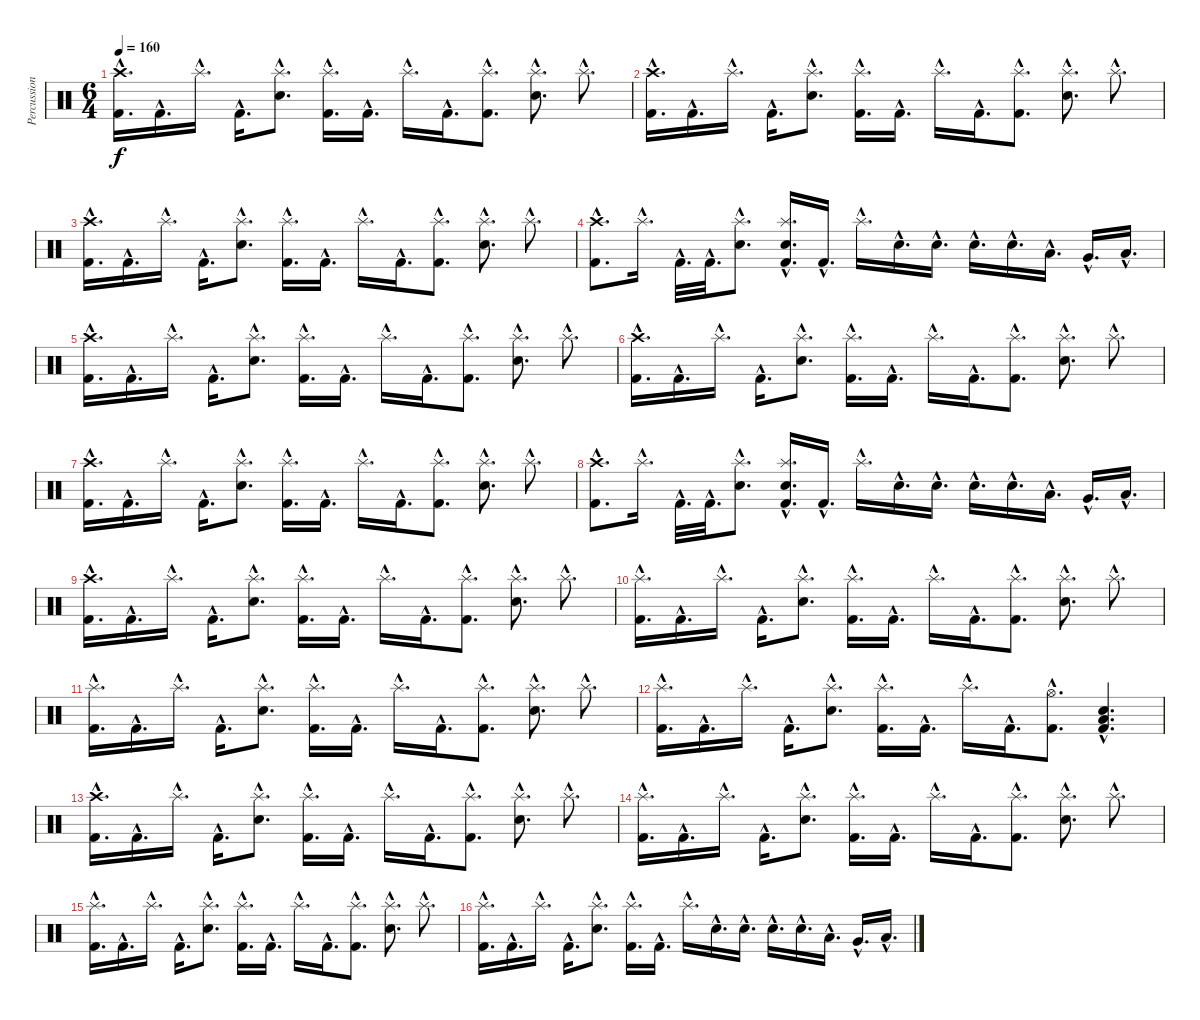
\track ("Percussion" "Percussion") {instrument percussion}
\staff {score}
\articulation defaults
\ts (6 4)
\tempo 160
\clef neutral
\ks c
("Crash high (hit)"{hac} "Kick (hit) 2"{hac}).16{d dy f} "Kick (hit) 2"{hac}.16{d} "Splash (hit)"{hac}.16{d} "Kick (hit) 2"{hac}.16{d} ("Splash (hit)"{hac} "Electric Snare (hit)"{hac}).8{d} ("Splash (hit)"{hac} "Kick (hit) 2"{hac}).16{d} "Kick (hit) 2"{hac}.16{d} "Splash (hit)"{hac}.16{d} "Kick (hit) 2"{hac}.16{d} ("Splash (hit)"{hac} "Kick (hit) 2"{hac}).8{d} ("Splash (hit)"{hac} "Electric Snare (hit)"{hac}).8{d} "Splash (hit)"{hac}.8{d} |
("Crash high (hit)"{hac} "Kick (hit) 2"{hac}).16{d} "Kick (hit) 2"{hac}.16{d} "Splash (hit)"{hac}.16{d} "Kick (hit) 2"{hac}.16{d} ("Splash (hit)"{hac} "Electric Snare (hit)"{hac}).8{d} ("Splash (hit)"{hac} "Kick (hit) 2"{hac}).16{d} "Kick (hit) 2"{hac}.16{d} "Splash (hit)"{hac}.16{d} "Kick (hit) 2"{hac}.16{d} ("Splash (hit)"{hac} "Kick (hit) 2"{hac}).8{d} ("Splash (hit)"{hac} "Electric Snare (hit)"{hac}).8{d} "Splash (hit)"{hac}.8{d} |
("Crash high (hit)"{hac} "Kick (hit) 2"{hac}).16{d} "Kick (hit) 2"{hac}.16{d} "Splash (hit)"{hac}.16{d} "Kick (hit) 2"{hac}.16{d} ("Splash (hit)"{hac} "Electric Snare (hit)"{hac}).8{d} ("Splash (hit)"{hac} "Kick (hit) 2"{hac}).16{d} "Kick (hit) 2"{hac}.16{d} "Splash (hit)"{hac}.16{d} "Kick (hit) 2"{hac}.16{d} ("Splash (hit)"{hac} "Kick (hit) 2"{hac}).8{d} ("Splash (hit)"{hac} "Electric Snare (hit)"{hac}).8{d} "Splash (hit)"{hac}.8{d} |
("Crash high (hit)"{hac} "Kick (hit) 2"{hac}).8{d} "Splash (hit)"{hac}.16{d} "Kick (hit) 2"{hac}.32{d} "Kick (hit) 2"{hac}.32{d} ("Splash (hit)"{hac} "Electric Snare (hit)"{hac}).8{d} ("Splash (hit)"{hac} "Electric Snare (hit)"{hac} "Kick (hit) 2"{hac}).16{d} "Kick (hit) 2"{hac}.16{d} "Splash (hit)"{hac}.16{d} "Electric Snare (hit)"{hac}.16{d} "Electric Snare (hit)"{hac}.16{d} "Electric Snare (hit)"{hac}.16{d} "Electric Snare (hit)"{hac}.16{d} "Low Tom (hit)"{hac}.16{d} "Very Low Tom (hit)"{hac}.16{d} "Low Floor Tom (hit)"{hac}.16{d} |
("Crash high (hit)"{hac} "Kick (hit) 2"{hac}).16{d} "Kick (hit) 2"{hac}.16{d} "Splash (hit)"{hac}.16{d} "Kick (hit) 2"{hac}.16{d} ("Splash (hit)"{hac} "Electric Snare (hit)"{hac}).8{d} ("Splash (hit)"{hac} "Kick (hit) 2"{hac}).16{d} "Kick (hit) 2"{hac}.16{d} "Splash (hit)"{hac}.16{d} "Kick (hit) 2"{hac}.16{d} ("Splash (hit)"{hac} "Kick (hit) 2"{hac}).8{d} ("Splash (hit)"{hac} "Electric Snare (hit)"{hac}).8{d} "Splash (hit)"{hac}.8{d} |
("Crash high (hit)"{hac} "Kick (hit) 2"{hac}).16{d} "Kick (hit) 2"{hac}.16{d} "Splash (hit)"{hac}.16{d} "Kick (hit) 2"{hac}.16{d} ("Splash (hit)"{hac} "Electric Snare (hit)"{hac}).8{d} ("Splash (hit)"{hac} "Kick (hit) 2"{hac}).16{d} "Kick (hit) 2"{hac}.16{d} "Splash (hit)"{hac}.16{d} "Kick (hit) 2"{hac}.16{d} ("Splash (hit)"{hac} "Kick (hit) 2"{hac}).8{d} ("Splash (hit)"{hac} "Electric Snare (hit)"{hac}).8{d} "Splash (hit)"{hac}.8{d} |
("Crash high (hit)"{hac} "Kick (hit) 2"{hac}).16{d} "Kick (hit) 2"{hac}.16{d} "Splash (hit)"{hac}.16{d} "Kick (hit) 2"{hac}.16{d} ("Splash (hit)"{hac} "Electric Snare (hit)"{hac}).8{d} ("Splash (hit)"{hac} "Kick (hit) 2"{hac}).16{d} "Kick (hit) 2"{hac}.16{d} "Splash (hit)"{hac}.16{d} "Kick (hit) 2"{hac}.16{d} ("Splash (hit)"{hac} "Kick (hit) 2"{hac}).8{d} ("Splash (hit)"{hac} "Electric Snare (hit)"{hac}).8{d} "Splash (hit)"{hac}.8{d} |
("Crash high (hit)"{hac} "Kick (hit) 2"{hac}).8{d} "Splash (hit)"{hac}.16{d} "Kick (hit) 2"{hac}.32{d} "Kick (hit) 2"{hac}.32{d} ("Splash (hit)"{hac} "Electric Snare (hit)"{hac}).8{d} ("Splash (hit)"{hac} "Electric Snare (hit)"{hac} "Kick (hit) 2"{hac}).16{d} "Kick (hit) 2"{hac}.16{d} "Splash (hit)"{hac}.16{d} "Electric Snare (hit)"{hac}.16{d} "Electric Snare (hit)"{hac}.16{d} "Electric Snare (hit)"{hac}.16{d} "Electric Snare (hit)"{hac}.16{d} "Low Tom (hit)"{hac}.16{d} "Very Low Tom (hit)"{hac}.16{d} "Low Floor Tom (hit)"{hac}.16{d} |
("Crash high (hit)"{hac} "Kick (hit) 2"{hac}).16{d} "Kick (hit) 2"{hac}.16{d} "Splash (hit)"{hac}.16{d} "Kick (hit) 2"{hac}.16{d} ("Splash (hit)"{hac} "Electric Snare (hit)"{hac}).8{d} ("Splash (hit)"{hac} "Kick (hit) 2"{hac}).16{d} "Kick (hit) 2"{hac}.16{d} "Splash (hit)"{hac}.16{d} "Kick (hit) 2"{hac}.16{d} ("Splash (hit)"{hac} "Kick (hit) 2"{hac}).8{d} ("Splash (hit)"{hac} "Electric Snare (hit)"{hac}).8{d} "Splash (hit)"{hac}.8{d} |
("Splash (hit)"{hac} "Kick (hit) 2"{hac}).16{d} "Kick (hit) 2"{hac}.16{d} "Splash (hit)"{hac}.16{d} "Kick (hit) 2"{hac}.16{d} ("Splash (hit)"{hac} "Electric Snare (hit)"{hac}).8{d} ("Splash (hit)"{hac} "Kick (hit) 2"{hac}).16{d} "Kick (hit) 2"{hac}.16{d} "Splash (hit)"{hac}.16{d} "Kick (hit) 2"{hac}.16{d} ("Splash (hit)"{hac} "Kick (hit) 2"{hac}).8{d} ("Splash (hit)"{hac} "Electric Snare (hit)"{hac}).8{d} "Splash (hit)"{hac}.8{d} |
("Splash (hit)"{hac} "Kick (hit) 2"{hac}).16{d} "Kick (hit) 2"{hac}.16{d} "Splash (hit)"{hac}.16{d} "Kick (hit) 2"{hac}.16{d} ("Splash (hit)"{hac} "Electric Snare (hit)"{hac}).8{d} ("Splash (hit)"{hac} "Kick (hit) 2"{hac}).16{d} "Kick (hit) 2"{hac}.16{d} "Splash (hit)"{hac}.16{d} "Kick (hit) 2"{hac}.16{d} ("Splash (hit)"{hac} "Kick (hit) 2"{hac}).8{d} ("Splash (hit)"{hac} "Electric Snare (hit)"{hac}).8{d} "Splash (hit)"{hac}.8{d} |
("Splash (hit)"{hac} "Kick (hit) 2"{hac}).16{d} "Kick (hit) 2"{hac}.16{d} "Splash (hit)"{hac}.16{d} "Kick (hit) 2"{hac}.16{d} ("Splash (hit)"{hac} "Electric Snare (hit)"{hac}).8{d} ("Splash (hit)"{hac} "Kick (hit) 2"{hac}).16{d} "Kick (hit) 2"{hac}.16{d} "Splash (hit)"{hac}.16{d} "Kick (hit) 2"{hac}.16{d} ("Hi-Hat (open)"{hac} "Kick (hit) 2"{hac}).8{d} ("Low Floor Tom (hit)"{hac} "Electric Snare (hit)"{hac} "Kick (hit) 2"{hac}).4{d} |
("Crash high (hit)"{hac} "Kick (hit) 2"{hac}).16{d} "Kick (hit) 2"{hac}.16{d} "Splash (hit)"{hac}.16{d} "Kick (hit) 2"{hac}.16{d} ("Splash (hit)"{hac} "Electric Snare (hit)"{hac}).8{d} ("Splash (hit)"{hac} "Kick (hit) 2"{hac}).16{d} "Kick (hit) 2"{hac}.16{d} "Splash (hit)"{hac}.16{d} "Kick (hit) 2"{hac}.16{d} ("Splash (hit)"{hac} "Kick (hit) 2"{hac}).8{d} ("Splash (hit)"{hac} "Electric Snare (hit)"{hac}).8{d} "Splash (hit)"{hac}.8{d} |
("Splash (hit)"{hac} "Kick (hit) 2"{hac}).16{d} "Kick (hit) 2"{hac}.16{d} "Splash (hit)"{hac}.16{d} "Kick (hit) 2"{hac}.16{d} ("Splash (hit)"{hac} "Electric Snare (hit)"{hac}).8{d} ("Splash (hit)"{hac} "Kick (hit) 2"{hac}).16{d} "Kick (hit) 2"{hac}.16{d} "Splash (hit)"{hac}.16{d} "Kick (hit) 2"{hac}.16{d} ("Splash (hit)"{hac} "Kick (hit) 2"{hac}).8{d} ("Splash (hit)"{hac} "Electric Snare (hit)"{hac}).8{d} "Splash (hit)"{hac}.8{d} |
("Splash (hit)"{hac} "Kick (hit) 2"{hac}).16{d} "Kick (hit) 2"{hac}.16{d} "Splash (hit)"{hac}.16{d} "Kick (hit) 2"{hac}.16{d} ("Splash (hit)"{hac} "Electric Snare (hit)"{hac}).8{d} ("Splash (hit)"{hac} "Kick (hit) 2"{hac}).16{d} "Kick (hit) 2"{hac}.16{d} "Splash (hit)"{hac}.16{d} "Kick (hit) 2"{hac}.16{d} ("Splash (hit)"{hac} "Kick (hit) 2"{hac}).8{d} ("Splash (hit)"{hac} "Electric Snare (hit)"{hac}).8{d} "Splash (hit)"{hac}.8{d} |
("Splash (hit)"{hac} "Kick (hit) 2"{hac}).16{d} "Kick (hit) 2"{hac}.16{d} "Splash (hit)"{hac}.16{d} "Kick (hit) 2"{hac}.16{d} ("Splash (hit)"{hac} "Electric Snare (hit)"{hac}).8{d} ("Splash (hit)"{hac} "Kick (hit) 2"{hac}).16{d} "Kick (hit) 2"{hac}.16{d} "Splash (hit)"{hac}.16{d} "Electric Snare (hit)"{hac}.16{d} "Electric Snare (hit)"{hac}.16{d} "Electric Snare (hit)"{hac}.16{d} "Electric Snare (hit)"{hac}.16{d} "Low Tom (hit)"{hac}.16{d} "Very Low Tom (hit)"{hac}.16{d} "Low Floor Tom (hit)"{hac}.16{d}
